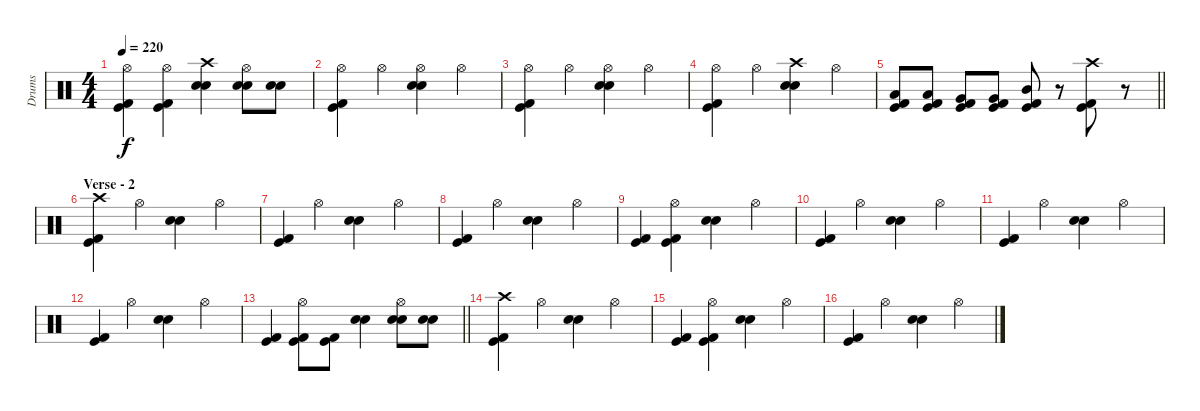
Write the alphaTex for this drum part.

\track ("Drums" "Drums") {instrument percussion}
\staff {score}
\articulation defaults
\ts (4 4)
\tempo 220
\clef neutral
\ks c
("Hi-Hat (open)" "Kick (hit) 2" "Kick (hit)").4{dy f} ("Hi-Hat (open)" "Kick (hit) 2" "Kick (hit)").4 ("Crash high (hit)" "Electric Snare (hit)" "Snare (hit) 2").4 ("Hi-Hat (open)" "Electric Snare (hit)" "Snare (hit) 2").8 ("Electric Snare (hit)" "Snare (hit) 2").8 |
("Hi-Hat (open)" "Kick (hit) 2" "Kick (hit)").4 "Hi-Hat (open)".4 ("Hi-Hat (open)" "Electric Snare (hit)" "Snare (hit) 2").4 "Hi-Hat (open)".4 |
("Hi-Hat (open)" "Kick (hit) 2" "Kick (hit)").4 "Hi-Hat (open)".4 ("Hi-Hat (open)" "Electric Snare (hit)" "Snare (hit) 2").4 "Hi-Hat (open)".4 |
("Hi-Hat (open)" "Kick (hit) 2" "Kick (hit)").4 "Hi-Hat (open)".4 ("Crash high (hit)" "Electric Snare (hit)" "Snare (hit) 2").4 "Hi-Hat (open)".4 |
\barLineRight lightlight
("Low Tom (hit)" "Kick (hit)" "Kick (hit) 2").8 ("Low Tom (hit)" "Kick (hit)" "Kick (hit) 2").8 ("Very Low Tom (hit)" "Kick (hit)" "Kick (hit) 2").8 ("Very Low Tom (hit)" "Kick (hit)" "Kick (hit) 2").8 ("Mid Tom (hit)" "Kick (hit)" "Kick (hit) 2").8 r.8 ("Crash high (hit)" "Kick (hit)" "Kick (hit) 2").8 r.8 |
\section ("" "Verse - 2")
("Crash high (hit)" "Kick (hit) 2" "Kick (hit)").4 "Hi-Hat (open)".4 ("Electric Snare (hit)" "Snare (hit) 2").4 "Hi-Hat (open)".4 |
("Kick (hit) 2" "Kick (hit)").4 "Hi-Hat (open)".4 ("Electric Snare (hit)" "Snare (hit) 2").4 "Hi-Hat (open)".4 |
("Kick (hit) 2" "Kick (hit)").4 "Hi-Hat (open)".4 ("Electric Snare (hit)" "Snare (hit) 2").4 "Hi-Hat (open)".4 |
("Kick (hit) 2" "Kick (hit)").4 ("Hi-Hat (open)" "Kick (hit) 2" "Kick (hit)").4 ("Electric Snare (hit)" "Snare (hit) 2").4 "Hi-Hat (open)".4 |
("Kick (hit) 2" "Kick (hit)").4 "Hi-Hat (open)".4 ("Electric Snare (hit)" "Snare (hit) 2").4 "Hi-Hat (open)".4 |
("Kick (hit) 2" "Kick (hit)").4 "Hi-Hat (open)".4 ("Electric Snare (hit)" "Snare (hit) 2").4 "Hi-Hat (open)".4 |
("Kick (hit) 2" "Kick (hit)").4 "Hi-Hat (open)".4 ("Electric Snare (hit)" "Snare (hit) 2").4 "Hi-Hat (open)".4 |
\barLineRight lightlight
("Kick (hit) 2" "Kick (hit)").4 ("Hi-Hat (open)" "Kick (hit) 2" "Kick (hit)").8 ("Kick (hit) 2" "Kick (hit)").8 ("Electric Snare (hit)" "Snare (hit) 2").4 ("Hi-Hat (open)" "Electric Snare (hit)" "Snare (hit) 2").8 ("Electric Snare (hit)" "Snare (hit) 2").8 |
("Crash high (hit)" "Kick (hit) 2" "Kick (hit)").4 "Hi-Hat (open)".4 ("Electric Snare (hit)" "Snare (hit) 2").4 "Hi-Hat (open)".4 |
("Kick (hit) 2" "Kick (hit)").4 ("Hi-Hat (open)" "Kick (hit) 2" "Kick (hit)").4 ("Electric Snare (hit)" "Snare (hit) 2").4 "Hi-Hat (open)".4 |
("Kick (hit) 2" "Kick (hit)").4 "Hi-Hat (open)".4 ("Electric Snare (hit)" "Snare (hit) 2").4 "Hi-Hat (open)".4
